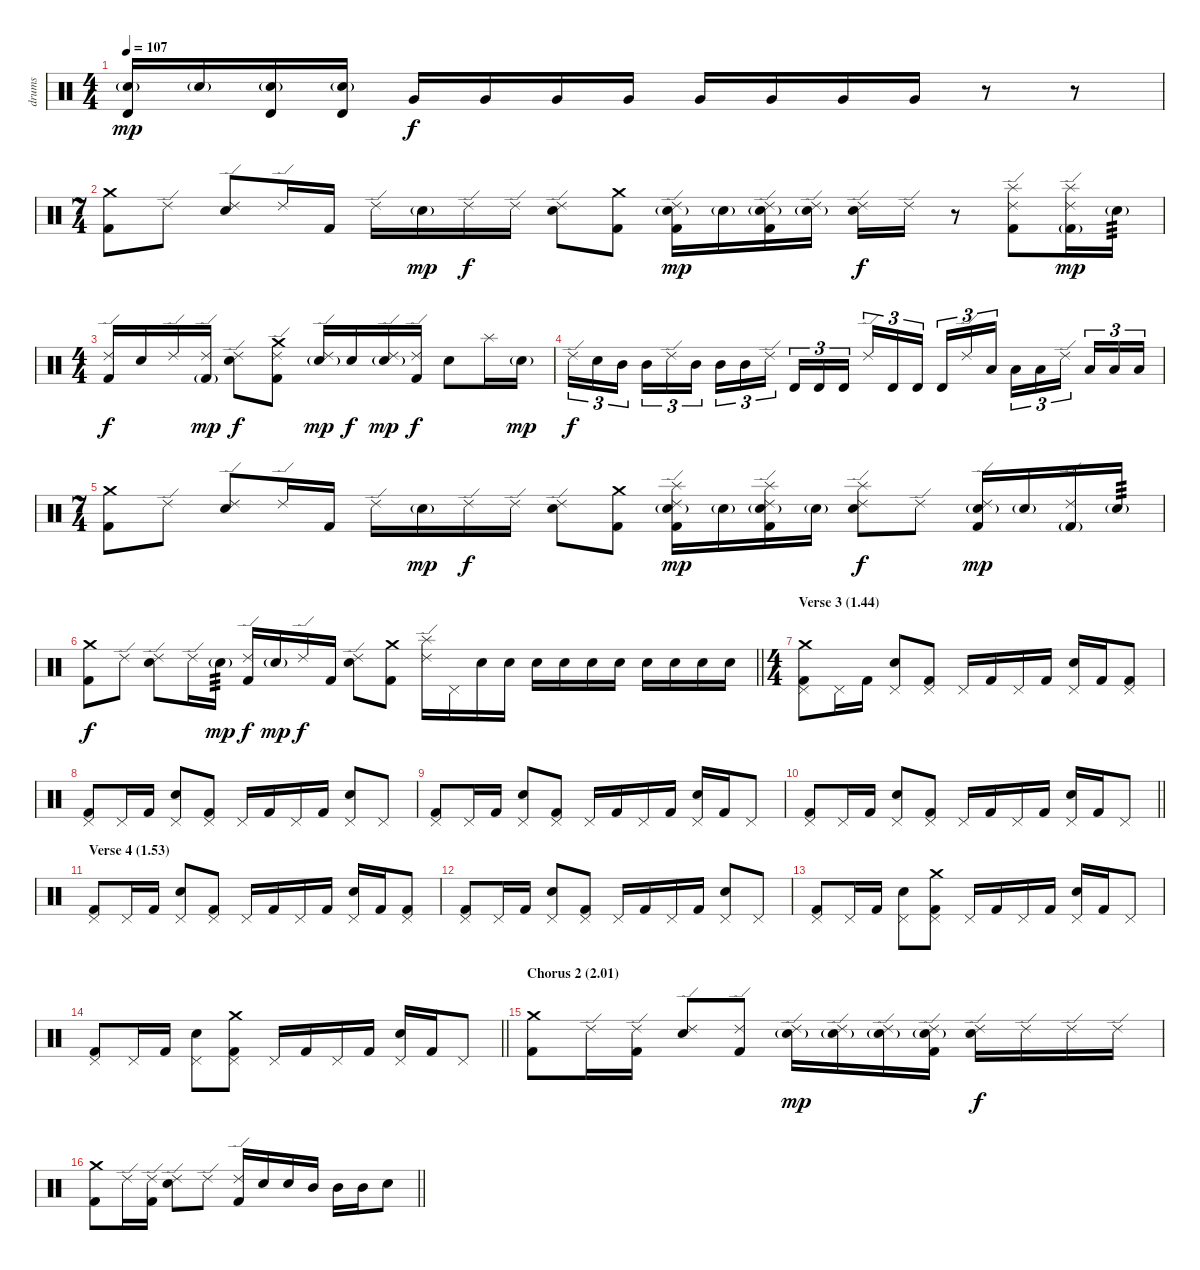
\track ("drums" "drums") {instrument percussion}
\staff {score}
\articulation defaults
\ts (4 4)
\tempo 107
\clef neutral
\ks c
("Timbale high (hit)" "Electric Snare (hit)"{g}).16{dy mp} "Electric Snare (hit)"{g}.16 ("Timbale high (hit)" "Electric Snare (hit)"{g}).16 ("Timbale high (hit)" "Electric Snare (hit)"{g}).16 "Very Low Tom (hit)".16{dy f} "Very Low Tom (hit)".16 "Very Low Tom (hit)".16 "Very Low Tom (hit)".16 "Very Low Tom (hit)".16 "Very Low Tom (hit)".16 "Very Low Tom (hit)".16 "Very Low Tom (hit)".16 r.8 r.8 |
\ts (7 4)
("Crash medium (hit)" "Kick (hit) 2").8 "Ride (edge) 2".8 ("Ride (edge) 2" "Electric Snare (hit)").8 "Ride (edge) 2".16 "Kick (hit) 2".16 "Ride (edge) 2".16 "Electric Snare (hit)"{g}.16{dy mp} "Ride (edge) 2".16{dy f} "Ride (edge) 2".16 ("Ride (edge) 2" "Electric Snare (hit)").8 ("Crash medium (hit)" "Kick (hit) 2").8 ("Ride (edge) 2" "Electric Snare (hit)"{g} "Kick (hit) 2").16{dy mp} "Electric Snare (hit)"{g}.16 ("Ride (edge) 2" "Electric Snare (hit)"{g} "Kick (hit) 2").16 ("Ride (edge) 2" "Electric Snare (hit)"{g}).16 ("Ride (edge) 2" "Electric Snare (hit)").16{dy f} "Ride (edge) 2".16 r.8 ("Ride (edge) 2" "Splash (hit)" "Kick (hit) 2").8 ("Ride (edge) 2" "Splash (hit)" "Kick (hit) 2"{g}).16{dy mp} "Electric Snare (hit)"{g}.16{tp 3} |
\ts (4 4)
("Ride (edge) 2" "Kick (hit) 2").16{dy f} "Electric Snare (hit)".16 "Ride (edge) 2".16 ("Ride (edge) 2" "Kick (hit) 2"{g}).16{dy mp} ("Ride (edge) 2" "Electric Snare (hit)").8{dy f} ("Ride (edge) 2" "Crash medium (hit)" "Kick (hit) 2").8 ("Ride (edge) 2" "Electric Snare (hit)"{g}).16{dy mp} "Electric Snare (hit)".16{dy f} ("Ride (edge) 2" "Electric Snare (hit)"{g}).16{dy mp} ("Ride (edge) 2" "Kick (hit) 2").16{dy f} "Electric Snare (hit)".8 "Splash (hit)".16 "Electric Snare (hit)"{g}.16{dy mp} |
"Ride (edge) 2".16{tu (3 2) dy f} "Electric Snare (hit)".16{tu (3 2)} "Mid Tom (hit)".16{tu (3 2) beam splitsecondary} "Mid Tom (hit)".16{tu (3 2)} "Ride (edge) 2".16{tu (3 2)} "Mid Tom (hit)".16{tu (3 2)} "Mid Tom (hit)".16{tu (3 2)} "Mid Tom (hit)".16{tu (3 2)} "Ride (edge) 2".16{tu (3 2) beam splitsecondary} "Timbale high (hit)".16{tu (3 2)} "Timbale high (hit)".16{tu (3 2)} "Timbale high (hit)".16{tu (3 2)} "Ride (edge) 2".16{tu (3 2)} "Timbale high (hit)".16{tu (3 2)} "Timbale high (hit)".16{tu (3 2) beam splitsecondary} "Timbale high (hit)".16{tu (3 2)} "Ride (edge) 2".16{tu (3 2)} "Low Floor Tom (hit)".16{tu (3 2)} "Low Floor Tom (hit)".16{tu (3 2)} "Low Floor Tom (hit)".16{tu (3 2)} "Ride (edge) 2".16{tu (3 2) beam splitsecondary} "Low Floor Tom (hit)".16{tu (3 2)} "Low Floor Tom (hit)".16{tu (3 2)} "Low Floor Tom (hit)".16{tu (3 2)} |
\ts (7 4)
("Crash medium (hit)" "Kick (hit) 2").8 "Ride (edge) 2".8 ("Ride (edge) 2" "Electric Snare (hit)").8 "Ride (edge) 2".16 "Kick (hit) 2".16 "Ride (edge) 2".16 "Electric Snare (hit)"{g}.16{dy mp} "Ride (edge) 2".16{dy f} "Ride (edge) 2".16 ("Ride (edge) 2" "Electric Snare (hit)").8 ("Crash medium (hit)" "Kick (hit) 2").8 ("Ride (edge) 2" "Splash (hit)" "Electric Snare (hit)"{g} "Kick (hit) 2").16{dy mp} "Electric Snare (hit)"{g}.16 ("Ride (edge) 2" "Splash (hit)" "Electric Snare (hit)"{g} "Kick (hit) 2").16 "Electric Snare (hit)"{g}.16 ("Ride (edge) 2" "Splash (hit)" "Electric Snare (hit)").8{dy f} "Ride (edge) 2".8 ("Ride (edge) 2" "Electric Snare (hit)"{g} "Kick (hit) 2").16{dy mp} "Electric Snare (hit)"{g}.16 ("Ride (edge) 2" "Kick (hit) 2"{g}).16 "Electric Snare (hit)"{g}.16{tp 3} |
\barLineRight lightlight
("Crash medium (hit)" "Kick (hit) 2").8{dy f} "Ride (edge) 2".8 ("Ride (edge) 2" "Electric Snare (hit)").8 "Ride (edge) 2".16 "Electric Snare (hit)"{g}.16{tp 3 dy mp} ("Ride (edge) 2" "Kick (hit) 2").16{dy f} "Electric Snare (hit)"{g}.16{dy mp} "Ride (edge) 2".16{dy f} "Kick (hit) 2".16 ("Ride (edge) 2" "Electric Snare (hit)").8 ("Crash medium (hit)" "Kick (hit) 2").8 ("Ride (edge) 2" "Splash (hit)").16 "Pedal Hi-Hat (hit)".16 "Electric Snare (hit)".16 "Electric Snare (hit)".16 "Electric Snare (hit)".16 "Electric Snare (hit)".16 "Electric Snare (hit)".16 "Electric Snare (hit)".16 "Electric Snare (hit)".16 "Electric Snare (hit)".16 "Electric Snare (hit)".16 "Electric Snare (hit)".16 |
\ts (4 4)
\section ("" "Verse 3 (1.44)")
("Pedal Hi-Hat (hit)" "Crash medium (hit)" "Kick (hit) 2").8 "Pedal Hi-Hat (hit)".16 "Kick (hit) 2".16 ("Pedal Hi-Hat (hit)" "Electric Snare (hit)").8 ("Pedal Hi-Hat (hit)" "Kick (hit) 2").8 "Pedal Hi-Hat (hit)".16 "Kick (hit) 2".16 "Pedal Hi-Hat (hit)".16 "Kick (hit) 2".16 ("Pedal Hi-Hat (hit)" "Electric Snare (hit)").16 "Kick (hit) 2".16 ("Pedal Hi-Hat (hit)" "Kick (hit) 2").8 |
("Pedal Hi-Hat (hit)" "Kick (hit) 2").8 "Pedal Hi-Hat (hit)".16 "Kick (hit) 2".16 ("Pedal Hi-Hat (hit)" "Electric Snare (hit)").8 ("Pedal Hi-Hat (hit)" "Kick (hit) 2").8 "Pedal Hi-Hat (hit)".16 "Kick (hit) 2".16 "Pedal Hi-Hat (hit)".16 "Kick (hit) 2".16 ("Pedal Hi-Hat (hit)" "Electric Snare (hit)").8 "Pedal Hi-Hat (hit)".8 |
("Pedal Hi-Hat (hit)" "Kick (hit) 2").8 "Pedal Hi-Hat (hit)".16 "Kick (hit) 2".16 ("Pedal Hi-Hat (hit)" "Electric Snare (hit)").8 ("Pedal Hi-Hat (hit)" "Kick (hit) 2").8 "Pedal Hi-Hat (hit)".16 "Kick (hit) 2".16 "Pedal Hi-Hat (hit)".16 "Kick (hit) 2".16 ("Pedal Hi-Hat (hit)" "Electric Snare (hit)").16 "Kick (hit) 2".16 "Pedal Hi-Hat (hit)".8 |
\barLineRight lightlight
("Pedal Hi-Hat (hit)" "Kick (hit) 2").8 "Pedal Hi-Hat (hit)".16 "Kick (hit) 2".16 ("Pedal Hi-Hat (hit)" "Electric Snare (hit)").8 ("Pedal Hi-Hat (hit)" "Kick (hit) 2").8 "Pedal Hi-Hat (hit)".16 "Kick (hit) 2".16 "Pedal Hi-Hat (hit)".16 "Kick (hit) 2".16 ("Pedal Hi-Hat (hit)" "Electric Snare (hit)").16 "Kick (hit) 2".16 "Pedal Hi-Hat (hit)".8 |
\section ("" "Verse 4 (1.53)")
("Pedal Hi-Hat (hit)" "Kick (hit) 2").8 "Pedal Hi-Hat (hit)".16 "Kick (hit) 2".16 ("Pedal Hi-Hat (hit)" "Electric Snare (hit)").8 ("Pedal Hi-Hat (hit)" "Kick (hit) 2").8 "Pedal Hi-Hat (hit)".16 "Kick (hit) 2".16 "Pedal Hi-Hat (hit)".16 "Kick (hit) 2".16 ("Pedal Hi-Hat (hit)" "Electric Snare (hit)").16 "Kick (hit) 2".16 ("Pedal Hi-Hat (hit)" "Kick (hit) 2").8 |
("Pedal Hi-Hat (hit)" "Kick (hit) 2").8 "Pedal Hi-Hat (hit)".16 "Kick (hit) 2".16 ("Pedal Hi-Hat (hit)" "Electric Snare (hit)").8 ("Pedal Hi-Hat (hit)" "Kick (hit) 2").8 "Pedal Hi-Hat (hit)".16 "Kick (hit) 2".16 "Pedal Hi-Hat (hit)".16 "Kick (hit) 2".16 ("Pedal Hi-Hat (hit)" "Electric Snare (hit)").8 "Pedal Hi-Hat (hit)".8 |
("Pedal Hi-Hat (hit)" "Kick (hit) 2").8 "Pedal Hi-Hat (hit)".16 "Kick (hit) 2".16 ("Pedal Hi-Hat (hit)" "Electric Snare (hit)").8 ("Pedal Hi-Hat (hit)" "Crash medium (hit)" "Kick (hit) 2").8 "Pedal Hi-Hat (hit)".16 "Kick (hit) 2".16 "Pedal Hi-Hat (hit)".16 "Kick (hit) 2".16 ("Pedal Hi-Hat (hit)" "Electric Snare (hit)").16 "Kick (hit) 2".16 "Pedal Hi-Hat (hit)".8 |
\barLineRight lightlight
("Pedal Hi-Hat (hit)" "Kick (hit) 2").8 "Pedal Hi-Hat (hit)".16 "Kick (hit) 2".16 ("Pedal Hi-Hat (hit)" "Electric Snare (hit)").8 ("Pedal Hi-Hat (hit)" "Crash medium (hit)" "Kick (hit) 2").8 "Pedal Hi-Hat (hit)".16 "Kick (hit) 2".16 "Pedal Hi-Hat (hit)".16 "Kick (hit) 2".16 ("Pedal Hi-Hat (hit)" "Electric Snare (hit)").16 "Kick (hit) 2".16 "Pedal Hi-Hat (hit)".8 |
\section ("" "Chorus 2 (2.01)")
("Crash medium (hit)" "Kick (hit) 2").8 "Ride (edge) 2".16 ("Ride (edge) 2" "Kick (hit) 2").16 ("Ride (edge) 2" "Electric Snare (hit)").8 ("Ride (edge) 2" "Kick (hit) 2").8 ("Ride (edge) 2" "Electric Snare (hit)"{g}).16{dy mp} ("Ride (edge) 2" "Electric Snare (hit)"{g}).16 ("Ride (edge) 2" "Electric Snare (hit)"{g}).16 ("Ride (edge) 2" "Electric Snare (hit)"{g} "Kick (hit) 2").16 ("Ride (edge) 2" "Electric Snare (hit)").16{dy f} "Ride (edge) 2".16 "Ride (edge) 2".16 "Ride (edge) 2".16 |
\barLineRight lightlight
("Crash medium (hit)" "Kick (hit) 2").8 "Ride (edge) 2".16 ("Ride (edge) 2" "Kick (hit) 2").16 ("Ride (edge) 2" "Electric Snare (hit)").8 "Ride (edge) 2".8 ("Ride (edge) 2" "Kick (hit) 2").16 "Electric Snare (hit)".16 "Electric Snare (hit)".16 "Mid Tom (hit)".16 "Mid Tom (hit)".16 "Mid Tom (hit)".16 "Electric Snare (hit)".8
